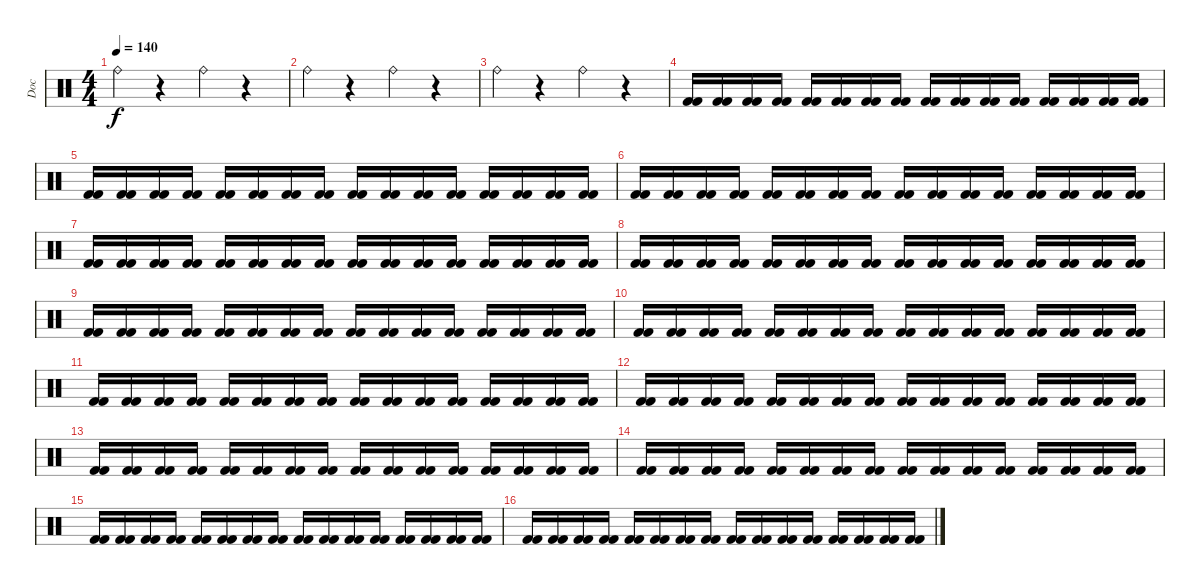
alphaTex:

\track ("Doc" "Doc") {instrument percussion}
\staff {score}
\articulation defaults
\ts (4 4)
\tempo 140
\clef neutral
\ks c "Ride (bell)".4{dy f}
r.4 "Ride (bell)".4 r.4 |
"Ride (bell)".4 r.4 "Ride (bell)".4 r.4 |
"Ride (bell)".4 r.4 "Ride (bell)".4 r.4 |
("Kick (hit) 2" "Kick (hit) 2").16 ("Kick (hit) 2" "Kick (hit) 2").16 ("Kick (hit) 2" "Kick (hit) 2").16 ("Kick (hit) 2" "Kick (hit) 2").16 ("Kick (hit) 2" "Kick (hit) 2").16 ("Kick (hit) 2" "Kick (hit) 2").16 ("Kick (hit) 2" "Kick (hit) 2").16 ("Kick (hit) 2" "Kick (hit) 2").16 ("Kick (hit) 2" "Kick (hit) 2").16 ("Kick (hit) 2" "Kick (hit) 2").16 ("Kick (hit) 2" "Kick (hit) 2").16 ("Kick (hit) 2" "Kick (hit) 2").16 ("Kick (hit) 2" "Kick (hit) 2").16 ("Kick (hit) 2" "Kick (hit) 2").16 ("Kick (hit) 2" "Kick (hit) 2").16 ("Kick (hit) 2" "Kick (hit) 2").16 |
("Kick (hit) 2" "Kick (hit) 2").16 ("Kick (hit) 2" "Kick (hit) 2").16 ("Kick (hit) 2" "Kick (hit) 2").16 ("Kick (hit) 2" "Kick (hit) 2").16 ("Kick (hit) 2" "Kick (hit) 2").16 ("Kick (hit) 2" "Kick (hit) 2").16 ("Kick (hit) 2" "Kick (hit) 2").16 ("Kick (hit) 2" "Kick (hit) 2").16 ("Kick (hit) 2" "Kick (hit) 2").16 ("Kick (hit) 2" "Kick (hit) 2").16 ("Kick (hit) 2" "Kick (hit) 2").16 ("Kick (hit) 2" "Kick (hit) 2").16 ("Kick (hit) 2" "Kick (hit) 2").16 ("Kick (hit) 2" "Kick (hit) 2").16 ("Kick (hit) 2" "Kick (hit) 2").16 ("Kick (hit) 2" "Kick (hit) 2").16 |
("Kick (hit) 2" "Kick (hit) 2").16 ("Kick (hit) 2" "Kick (hit) 2").16 ("Kick (hit) 2" "Kick (hit) 2").16 ("Kick (hit) 2" "Kick (hit) 2").16 ("Kick (hit) 2" "Kick (hit) 2").16 ("Kick (hit) 2" "Kick (hit) 2").16 ("Kick (hit) 2" "Kick (hit) 2").16 ("Kick (hit) 2" "Kick (hit) 2").16 ("Kick (hit) 2" "Kick (hit) 2").16 ("Kick (hit) 2" "Kick (hit) 2").16 ("Kick (hit) 2" "Kick (hit) 2").16 ("Kick (hit) 2" "Kick (hit) 2").16 ("Kick (hit) 2" "Kick (hit) 2").16 ("Kick (hit) 2" "Kick (hit) 2").16 ("Kick (hit) 2" "Kick (hit) 2").16 ("Kick (hit) 2" "Kick (hit) 2").16 |
("Kick (hit) 2" "Kick (hit) 2").16 ("Kick (hit) 2" "Kick (hit) 2").16 ("Kick (hit) 2" "Kick (hit) 2").16 ("Kick (hit) 2" "Kick (hit) 2").16 ("Kick (hit) 2" "Kick (hit) 2").16 ("Kick (hit) 2" "Kick (hit) 2").16 ("Kick (hit) 2" "Kick (hit) 2").16 ("Kick (hit) 2" "Kick (hit) 2").16 ("Kick (hit) 2" "Kick (hit) 2").16 ("Kick (hit) 2" "Kick (hit) 2").16 ("Kick (hit) 2" "Kick (hit) 2").16 ("Kick (hit) 2" "Kick (hit) 2").16 ("Kick (hit) 2" "Kick (hit) 2").16 ("Kick (hit) 2" "Kick (hit) 2").16 ("Kick (hit) 2" "Kick (hit) 2").16 ("Kick (hit) 2" "Kick (hit) 2").16 |
("Kick (hit) 2" "Kick (hit) 2").16 ("Kick (hit) 2" "Kick (hit) 2").16 ("Kick (hit) 2" "Kick (hit) 2").16 ("Kick (hit) 2" "Kick (hit) 2").16 ("Kick (hit) 2" "Kick (hit) 2").16 ("Kick (hit) 2" "Kick (hit) 2").16 ("Kick (hit) 2" "Kick (hit) 2").16 ("Kick (hit) 2" "Kick (hit) 2").16 ("Kick (hit) 2" "Kick (hit) 2").16 ("Kick (hit) 2" "Kick (hit) 2").16 ("Kick (hit) 2" "Kick (hit) 2").16 ("Kick (hit) 2" "Kick (hit) 2").16 ("Kick (hit) 2" "Kick (hit) 2").16 ("Kick (hit) 2" "Kick (hit) 2").16 ("Kick (hit) 2" "Kick (hit) 2").16 ("Kick (hit) 2" "Kick (hit) 2").16 |
("Kick (hit) 2" "Kick (hit) 2").16 ("Kick (hit) 2" "Kick (hit) 2").16 ("Kick (hit) 2" "Kick (hit) 2").16 ("Kick (hit) 2" "Kick (hit) 2").16 ("Kick (hit) 2" "Kick (hit) 2").16 ("Kick (hit) 2" "Kick (hit) 2").16 ("Kick (hit) 2" "Kick (hit) 2").16 ("Kick (hit) 2" "Kick (hit) 2").16 ("Kick (hit) 2" "Kick (hit) 2").16 ("Kick (hit) 2" "Kick (hit) 2").16 ("Kick (hit) 2" "Kick (hit) 2").16 ("Kick (hit) 2" "Kick (hit) 2").16 ("Kick (hit) 2" "Kick (hit) 2").16 ("Kick (hit) 2" "Kick (hit) 2").16 ("Kick (hit) 2" "Kick (hit) 2").16 ("Kick (hit) 2" "Kick (hit) 2").16 |
("Kick (hit) 2" "Kick (hit) 2").16 ("Kick (hit) 2" "Kick (hit) 2").16 ("Kick (hit) 2" "Kick (hit) 2").16 ("Kick (hit) 2" "Kick (hit) 2").16 ("Kick (hit) 2" "Kick (hit) 2").16 ("Kick (hit) 2" "Kick (hit) 2").16 ("Kick (hit) 2" "Kick (hit) 2").16 ("Kick (hit) 2" "Kick (hit) 2").16 ("Kick (hit) 2" "Kick (hit) 2").16 ("Kick (hit) 2" "Kick (hit) 2").16 ("Kick (hit) 2" "Kick (hit) 2").16 ("Kick (hit) 2" "Kick (hit) 2").16 ("Kick (hit) 2" "Kick (hit) 2").16 ("Kick (hit) 2" "Kick (hit) 2").16 ("Kick (hit) 2" "Kick (hit) 2").16 ("Kick (hit) 2" "Kick (hit) 2").16 |
("Kick (hit) 2" "Kick (hit) 2").16 ("Kick (hit) 2" "Kick (hit) 2").16 ("Kick (hit) 2" "Kick (hit) 2").16 ("Kick (hit) 2" "Kick (hit) 2").16 ("Kick (hit) 2" "Kick (hit) 2").16 ("Kick (hit) 2" "Kick (hit) 2").16 ("Kick (hit) 2" "Kick (hit) 2").16 ("Kick (hit) 2" "Kick (hit) 2").16 ("Kick (hit) 2" "Kick (hit) 2").16 ("Kick (hit) 2" "Kick (hit) 2").16 ("Kick (hit) 2" "Kick (hit) 2").16 ("Kick (hit) 2" "Kick (hit) 2").16 ("Kick (hit) 2" "Kick (hit) 2").16 ("Kick (hit) 2" "Kick (hit) 2").16 ("Kick (hit) 2" "Kick (hit) 2").16 ("Kick (hit) 2" "Kick (hit) 2").16 |
("Kick (hit) 2" "Kick (hit) 2").16 ("Kick (hit) 2" "Kick (hit) 2").16 ("Kick (hit) 2" "Kick (hit) 2").16 ("Kick (hit) 2" "Kick (hit) 2").16 ("Kick (hit) 2" "Kick (hit) 2").16 ("Kick (hit) 2" "Kick (hit) 2").16 ("Kick (hit) 2" "Kick (hit) 2").16 ("Kick (hit) 2" "Kick (hit) 2").16 ("Kick (hit) 2" "Kick (hit) 2").16 ("Kick (hit) 2" "Kick (hit) 2").16 ("Kick (hit) 2" "Kick (hit) 2").16 ("Kick (hit) 2" "Kick (hit) 2").16 ("Kick (hit) 2" "Kick (hit) 2").16 ("Kick (hit) 2" "Kick (hit) 2").16 ("Kick (hit) 2" "Kick (hit) 2").16 ("Kick (hit) 2" "Kick (hit) 2").16 |
("Kick (hit) 2" "Kick (hit) 2").16 ("Kick (hit) 2" "Kick (hit) 2").16 ("Kick (hit) 2" "Kick (hit) 2").16 ("Kick (hit) 2" "Kick (hit) 2").16 ("Kick (hit) 2" "Kick (hit) 2").16 ("Kick (hit) 2" "Kick (hit) 2").16 ("Kick (hit) 2" "Kick (hit) 2").16 ("Kick (hit) 2" "Kick (hit) 2").16 ("Kick (hit) 2" "Kick (hit) 2").16 ("Kick (hit) 2" "Kick (hit) 2").16 ("Kick (hit) 2" "Kick (hit) 2").16 ("Kick (hit) 2" "Kick (hit) 2").16 ("Kick (hit) 2" "Kick (hit) 2").16 ("Kick (hit) 2" "Kick (hit) 2").16 ("Kick (hit) 2" "Kick (hit) 2").16 ("Kick (hit) 2" "Kick (hit) 2").16 |
("Kick (hit) 2" "Kick (hit) 2").16 ("Kick (hit) 2" "Kick (hit) 2").16 ("Kick (hit) 2" "Kick (hit) 2").16 ("Kick (hit) 2" "Kick (hit) 2").16 ("Kick (hit) 2" "Kick (hit) 2").16 ("Kick (hit) 2" "Kick (hit) 2").16 ("Kick (hit) 2" "Kick (hit) 2").16 ("Kick (hit) 2" "Kick (hit) 2").16 ("Kick (hit) 2" "Kick (hit) 2").16 ("Kick (hit) 2" "Kick (hit) 2").16 ("Kick (hit) 2" "Kick (hit) 2").16 ("Kick (hit) 2" "Kick (hit) 2").16 ("Kick (hit) 2" "Kick (hit) 2").16 ("Kick (hit) 2" "Kick (hit) 2").16 ("Kick (hit) 2" "Kick (hit) 2").16 ("Kick (hit) 2" "Kick (hit) 2").16 |
("Kick (hit) 2" "Kick (hit) 2").16 ("Kick (hit) 2" "Kick (hit) 2").16 ("Kick (hit) 2" "Kick (hit) 2").16 ("Kick (hit) 2" "Kick (hit) 2").16 ("Kick (hit) 2" "Kick (hit) 2").16 ("Kick (hit) 2" "Kick (hit) 2").16 ("Kick (hit) 2" "Kick (hit) 2").16 ("Kick (hit) 2" "Kick (hit) 2").16 ("Kick (hit) 2" "Kick (hit) 2").16 ("Kick (hit) 2" "Kick (hit) 2").16 ("Kick (hit) 2" "Kick (hit) 2").16 ("Kick (hit) 2" "Kick (hit) 2").16 ("Kick (hit) 2" "Kick (hit) 2").16 ("Kick (hit) 2" "Kick (hit) 2").16 ("Kick (hit) 2" "Kick (hit) 2").16 ("Kick (hit) 2" "Kick (hit) 2").16 |
("Kick (hit) 2" "Kick (hit) 2").16 ("Kick (hit) 2" "Kick (hit) 2").16 ("Kick (hit) 2" "Kick (hit) 2").16 ("Kick (hit) 2" "Kick (hit) 2").16 ("Kick (hit) 2" "Kick (hit) 2").16 ("Kick (hit) 2" "Kick (hit) 2").16 ("Kick (hit) 2" "Kick (hit) 2").16 ("Kick (hit) 2" "Kick (hit) 2").16 ("Kick (hit) 2" "Kick (hit) 2").16 ("Kick (hit) 2" "Kick (hit) 2").16 ("Kick (hit) 2" "Kick (hit) 2").16 ("Kick (hit) 2" "Kick (hit) 2").16 ("Kick (hit) 2" "Kick (hit) 2").16 ("Kick (hit) 2" "Kick (hit) 2").16 ("Kick (hit) 2" "Kick (hit) 2").16 ("Kick (hit) 2" "Kick (hit) 2").16
